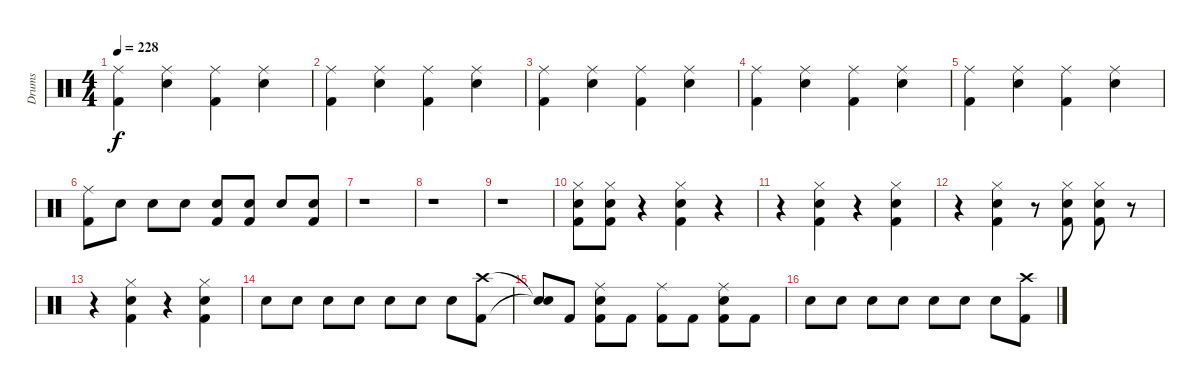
\track ("Drums" "Drums") {instrument percussion}
\staff {score}
\articulation defaults
\ts (4 4)
\tempo 228
\clef neutral
\ks c
("Ride (middle)" "Kick (hit) 2").4{dy f} ("Ride (middle)" "Electric Snare (hit)").4 ("Ride (middle)" "Kick (hit) 2").4 ("Ride (middle)" "Electric Snare (hit)").4 |
("Ride (middle)" "Kick (hit) 2").4 ("Ride (middle)" "Electric Snare (hit)").4 ("Ride (middle)" "Kick (hit) 2").4 ("Ride (middle)" "Electric Snare (hit)").4 |
("Ride (middle)" "Kick (hit) 2").4 ("Ride (middle)" "Electric Snare (hit)").4 ("Ride (middle)" "Kick (hit) 2").4 ("Ride (middle)" "Electric Snare (hit)").4 |
("Ride (middle)" "Kick (hit) 2").4 ("Ride (middle)" "Electric Snare (hit)").4 ("Ride (middle)" "Kick (hit) 2").4 ("Ride (middle)" "Electric Snare (hit)").4 |
("Ride (middle)" "Kick (hit) 2").4 ("Ride (middle)" "Electric Snare (hit)").4 ("Ride (middle)" "Kick (hit) 2").4 ("Ride (middle)" "Electric Snare (hit)").4 |
("Ride (middle)" "Kick (hit) 2").8 "Electric Snare (hit)".8 "Electric Snare (hit)".8 "Electric Snare (hit)".8 ("Electric Snare (hit)" "Kick (hit) 2").8 ("Electric Snare (hit)" "Kick (hit) 2").8 "Electric Snare (hit)".8 ("Electric Snare (hit)" "Kick (hit) 2").8 |
r.1 |
r.1 |
r.1 |
("Hi-Hat (closed)" "Electric Snare (hit)" "Kick (hit) 2").8 ("Hi-Hat (closed)" "Electric Snare (hit)" "Kick (hit) 2").8 r.4 ("Hi-Hat (closed)" "Electric Snare (hit)" "Kick (hit) 2").4 r.4 |
r.4 ("Hi-Hat (closed)" "Electric Snare (hit)" "Kick (hit) 2").4 r.4 ("Hi-Hat (closed)" "Electric Snare (hit)" "Kick (hit) 2").4 |
r.4 ("Hi-Hat (closed)" "Electric Snare (hit)" "Kick (hit) 2").4 r.8 ("Hi-Hat (closed)" "Electric Snare (hit)" "Kick (hit) 2").8 ("Hi-Hat (closed)" "Electric Snare (hit)" "Kick (hit) 2").8 r.8 |
r.4 ("Hi-Hat (closed)" "Electric Snare (hit)" "Kick (hit) 2").4 r.4 ("Hi-Hat (closed)" "Electric Snare (hit)" "Kick (hit) 2").4 |
"Electric Snare (hit)".8 "Electric Snare (hit)".8 "Electric Snare (hit)".8 "Electric Snare (hit)".8 "Electric Snare (hit)".8 "Electric Snare (hit)".8 "Electric Snare (hit)".8 ("Crash high (hit)" "Kick (hit) 2").8 |
("Snare (hit)"{t} "Snare (hit)"{t}).8 "Kick (hit) 2".8 ("Ride (middle)" "Electric Snare (hit)" "Kick (hit) 2").8 "Kick (hit) 2".8 ("Ride (middle)" "Kick (hit) 2").8 "Kick (hit) 2".8 ("Ride (middle)" "Electric Snare (hit)" "Kick (hit) 2").8 "Kick (hit) 2".8 |
"Electric Snare (hit)".8 "Electric Snare (hit)".8 "Electric Snare (hit)".8 "Electric Snare (hit)".8 "Electric Snare (hit)".8 "Electric Snare (hit)".8 "Electric Snare (hit)".8 ("Crash high (hit)" "Kick (hit) 2").8
